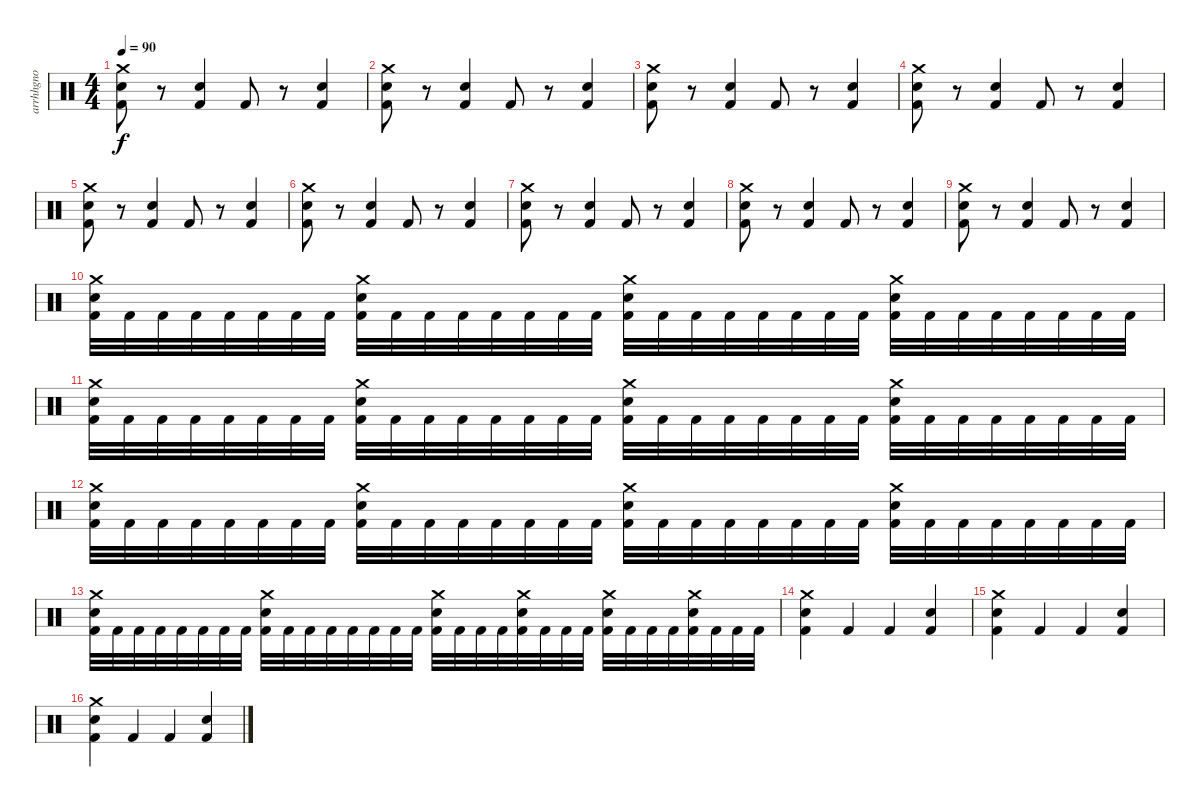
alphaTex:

\track ("arrhhgno" "arrhhgno") {instrument percussion}
\staff {score}
\articulation defaults
\ts (4 4)
\tempo 90
\clef neutral
\ks c
("Crash medium (hit)" "Electric Snare (hit)" "Kick (hit) 2").8{dy f} r.8 ("Kick (hit) 2" "Electric Snare (hit)").4 "Kick (hit) 2".8 r.8 ("Kick (hit) 2" "Electric Snare (hit)").4 |
("Crash medium (hit)" "Electric Snare (hit)" "Kick (hit) 2").8 r.8 ("Kick (hit) 2" "Electric Snare (hit)").4 "Kick (hit) 2".8 r.8 ("Kick (hit) 2" "Electric Snare (hit)").4 |
("Crash medium (hit)" "Electric Snare (hit)" "Kick (hit) 2").8 r.8 ("Kick (hit) 2" "Electric Snare (hit)").4 "Kick (hit) 2".8 r.8 ("Kick (hit) 2" "Electric Snare (hit)").4 |
("Crash medium (hit)" "Electric Snare (hit)" "Kick (hit) 2").8 r.8 ("Kick (hit) 2" "Electric Snare (hit)").4 "Kick (hit) 2".8 r.8 ("Kick (hit) 2" "Electric Snare (hit)").4 |
("Crash medium (hit)" "Electric Snare (hit)" "Kick (hit) 2").8 r.8 ("Kick (hit) 2" "Electric Snare (hit)").4 "Kick (hit) 2".8 r.8 ("Kick (hit) 2" "Electric Snare (hit)").4 |
("Crash medium (hit)" "Electric Snare (hit)" "Kick (hit) 2").8 r.8 ("Kick (hit) 2" "Electric Snare (hit)").4 "Kick (hit) 2".8 r.8 ("Kick (hit) 2" "Electric Snare (hit)").4 |
("Crash medium (hit)" "Electric Snare (hit)" "Kick (hit) 2").8 r.8 ("Kick (hit) 2" "Electric Snare (hit)").4 "Kick (hit) 2".8 r.8 ("Kick (hit) 2" "Electric Snare (hit)").4 |
("Crash medium (hit)" "Electric Snare (hit)" "Kick (hit) 2").8 r.8 ("Kick (hit) 2" "Electric Snare (hit)").4 "Kick (hit) 2".8 r.8 ("Kick (hit) 2" "Electric Snare (hit)").4 |
("Crash medium (hit)" "Electric Snare (hit)" "Kick (hit) 2").8 r.8 ("Kick (hit) 2" "Electric Snare (hit)").4 "Kick (hit) 2".8 r.8 ("Kick (hit) 2" "Electric Snare (hit)").4 |
("Crash medium (hit)" "Electric Snare (hit)" "Kick (hit) 2").32 "Kick (hit) 2".32 "Kick (hit) 2".32 "Kick (hit) 2".32 "Kick (hit) 2".32 "Kick (hit) 2".32 "Kick (hit) 2".32 "Kick (hit) 2".32 ("Crash medium (hit)" "Electric Snare (hit)" "Kick (hit) 2").32 "Kick (hit) 2".32 "Kick (hit) 2".32 "Kick (hit) 2".32 "Kick (hit) 2".32 "Kick (hit) 2".32 "Kick (hit) 2".32 "Kick (hit) 2".32 ("Crash medium (hit)" "Electric Snare (hit)" "Kick (hit) 2").32 "Kick (hit) 2".32 "Kick (hit) 2".32 "Kick (hit) 2".32 "Kick (hit) 2".32 "Kick (hit) 2".32 "Kick (hit) 2".32 "Kick (hit) 2".32 ("Crash medium (hit)" "Electric Snare (hit)" "Kick (hit) 2").32 "Kick (hit) 2".32 "Kick (hit) 2".32 "Kick (hit) 2".32 "Kick (hit) 2".32 "Kick (hit) 2".32 "Kick (hit) 2".32 "Kick (hit) 2".32 |
("Crash medium (hit)" "Electric Snare (hit)" "Kick (hit) 2").32 "Kick (hit) 2".32 "Kick (hit) 2".32 "Kick (hit) 2".32 "Kick (hit) 2".32 "Kick (hit) 2".32 "Kick (hit) 2".32 "Kick (hit) 2".32 ("Crash medium (hit)" "Electric Snare (hit)" "Kick (hit) 2").32 "Kick (hit) 2".32 "Kick (hit) 2".32 "Kick (hit) 2".32 "Kick (hit) 2".32 "Kick (hit) 2".32 "Kick (hit) 2".32 "Kick (hit) 2".32 ("Crash medium (hit)" "Electric Snare (hit)" "Kick (hit) 2").32 "Kick (hit) 2".32 "Kick (hit) 2".32 "Kick (hit) 2".32 "Kick (hit) 2".32 "Kick (hit) 2".32 "Kick (hit) 2".32 "Kick (hit) 2".32 ("Crash medium (hit)" "Electric Snare (hit)" "Kick (hit) 2").32 "Kick (hit) 2".32 "Kick (hit) 2".32 "Kick (hit) 2".32 "Kick (hit) 2".32 "Kick (hit) 2".32 "Kick (hit) 2".32 "Kick (hit) 2".32 |
("Crash medium (hit)" "Electric Snare (hit)" "Kick (hit) 2").32 "Kick (hit) 2".32 "Kick (hit) 2".32 "Kick (hit) 2".32 "Kick (hit) 2".32 "Kick (hit) 2".32 "Kick (hit) 2".32 "Kick (hit) 2".32 ("Crash medium (hit)" "Electric Snare (hit)" "Kick (hit) 2").32 "Kick (hit) 2".32 "Kick (hit) 2".32 "Kick (hit) 2".32 "Kick (hit) 2".32 "Kick (hit) 2".32 "Kick (hit) 2".32 "Kick (hit) 2".32 ("Crash medium (hit)" "Electric Snare (hit)" "Kick (hit) 2").32 "Kick (hit) 2".32 "Kick (hit) 2".32 "Kick (hit) 2".32 "Kick (hit) 2".32 "Kick (hit) 2".32 "Kick (hit) 2".32 "Kick (hit) 2".32 ("Crash medium (hit)" "Electric Snare (hit)" "Kick (hit) 2").32 "Kick (hit) 2".32 "Kick (hit) 2".32 "Kick (hit) 2".32 "Kick (hit) 2".32 "Kick (hit) 2".32 "Kick (hit) 2".32 "Kick (hit) 2".32 |
("Crash medium (hit)" "Electric Snare (hit)" "Kick (hit) 2").32 "Kick (hit) 2".32 "Kick (hit) 2".32 "Kick (hit) 2".32 "Kick (hit) 2".32 "Kick (hit) 2".32 "Kick (hit) 2".32 "Kick (hit) 2".32 ("Crash medium (hit)" "Electric Snare (hit)" "Kick (hit) 2").32 "Kick (hit) 2".32 "Kick (hit) 2".32 "Kick (hit) 2".32 "Kick (hit) 2".32 "Kick (hit) 2".32 "Kick (hit) 2".32 "Kick (hit) 2".32 ("Electric Snare (hit)" "Crash medium (hit)" "Kick (hit) 2").32 "Kick (hit) 2".32 "Kick (hit) 2".32 "Kick (hit) 2".32 ("Electric Snare (hit)" "Crash medium (hit)" "Kick (hit) 2").32 "Kick (hit) 2".32 "Kick (hit) 2".32 "Kick (hit) 2".32 ("Crash medium (hit)" "Electric Snare (hit)" "Kick (hit) 2").32 "Kick (hit) 2".32 "Kick (hit) 2".32 "Kick (hit) 2".32 ("Electric Snare (hit)" "Crash medium (hit)" "Kick (hit) 2").32 "Kick (hit) 2".32 "Kick (hit) 2".32 "Kick (hit) 2".32 |
("Crash medium (hit)" "Kick (hit) 2" "Electric Snare (hit)").4 "Kick (hit) 2".4 "Kick (hit) 2".4 ("Kick (hit) 2" "Electric Snare (hit)").4 |
("Crash medium (hit)" "Electric Snare (hit)" "Kick (hit) 2").4 "Kick (hit) 2".4 "Kick (hit) 2".4 ("Kick (hit) 2" "Electric Snare (hit)").4 |
("Crash medium (hit)" "Electric Snare (hit)" "Kick (hit) 2").4 "Kick (hit) 2".4 "Kick (hit) 2".4 ("Kick (hit) 2" "Electric Snare (hit)").4
